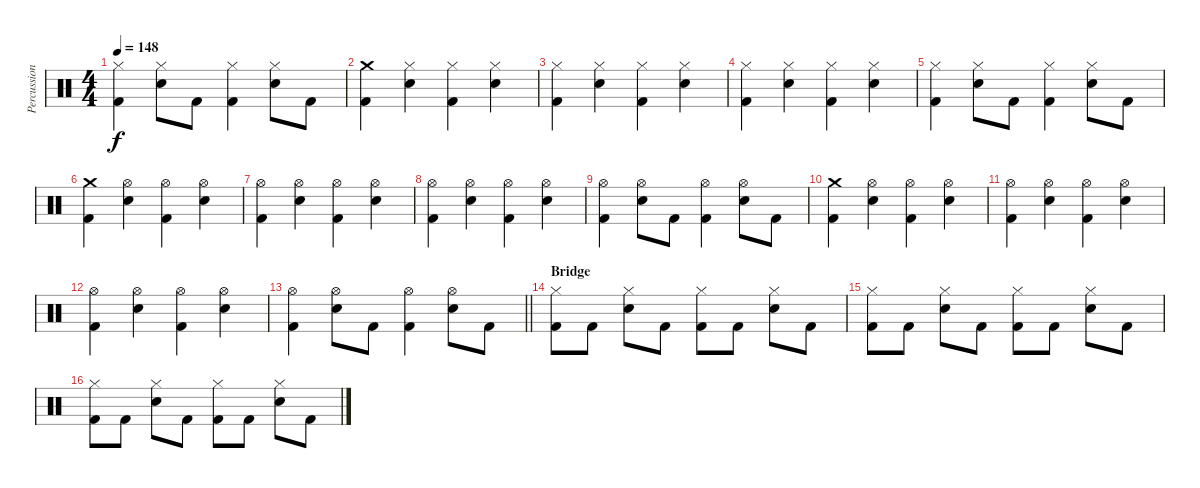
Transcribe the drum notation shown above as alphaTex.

\track ("Percussion - Dennis Wolfe" "Percussion") {instrument percussion}
\staff {score}
\articulation defaults
\ts (4 4)
\tempo 148
\clef neutral
\ks c
("Hi-Hat (closed)" "Kick (hit) 2").4{dy f} ("Hi-Hat (closed)" "Snare (hit) 2").8 "Kick (hit) 2".8 ("Hi-Hat (closed)" "Kick (hit) 2").4 ("Hi-Hat (closed)" "Snare (hit) 2").8 "Kick (hit) 2".8 |
("Crash medium (hit)" "Kick (hit) 2").4 ("Hi-Hat (closed)" "Snare (hit) 2").4 ("Hi-Hat (closed)" "Kick (hit) 2").4 ("Hi-Hat (closed)" "Snare (hit) 2").4 |
("Hi-Hat (closed)" "Kick (hit) 2").4 ("Hi-Hat (closed)" "Snare (hit) 2").4 ("Hi-Hat (closed)" "Kick (hit) 2").4 ("Hi-Hat (closed)" "Snare (hit) 2").4 |
("Hi-Hat (closed)" "Kick (hit) 2").4 ("Hi-Hat (closed)" "Snare (hit) 2").4 ("Hi-Hat (closed)" "Kick (hit) 2").4 ("Hi-Hat (closed)" "Snare (hit) 2").4 |
("Hi-Hat (closed)" "Kick (hit) 2").4 ("Hi-Hat (closed)" "Snare (hit) 2").8 "Kick (hit) 2".8 ("Hi-Hat (closed)" "Kick (hit) 2").4 ("Hi-Hat (closed)" "Snare (hit) 2").8 "Kick (hit) 2".8 |
("Crash medium (hit)" "Kick (hit) 2").4 ("Hi-Hat (open)" "Snare (hit) 2").4 ("Hi-Hat (open)" "Kick (hit) 2").4 ("Hi-Hat (open)" "Snare (hit) 2").4 |
("Hi-Hat (open)" "Kick (hit) 2").4 ("Hi-Hat (open)" "Snare (hit) 2").4 ("Hi-Hat (open)" "Kick (hit) 2").4 ("Hi-Hat (open)" "Snare (hit) 2").4 |
("Hi-Hat (open)" "Kick (hit) 2").4 ("Hi-Hat (open)" "Snare (hit) 2").4 ("Hi-Hat (open)" "Kick (hit) 2").4 ("Hi-Hat (open)" "Snare (hit) 2").4 |
("Hi-Hat (open)" "Kick (hit) 2").4 ("Hi-Hat (open)" "Snare (hit) 2").8 "Kick (hit) 2".8 ("Hi-Hat (open)" "Kick (hit) 2").4 ("Hi-Hat (open)" "Snare (hit) 2").8 "Kick (hit) 2".8 |
("Crash medium (hit)" "Kick (hit) 2").4 ("Hi-Hat (open)" "Snare (hit) 2").4 ("Hi-Hat (open)" "Kick (hit) 2").4 ("Hi-Hat (open)" "Snare (hit) 2").4 |
("Hi-Hat (open)" "Kick (hit) 2").4 ("Hi-Hat (open)" "Snare (hit) 2").4 ("Hi-Hat (open)" "Kick (hit) 2").4 ("Hi-Hat (open)" "Snare (hit) 2").4 |
("Hi-Hat (open)" "Kick (hit) 2").4 ("Hi-Hat (open)" "Snare (hit) 2").4 ("Hi-Hat (open)" "Kick (hit) 2").4 ("Hi-Hat (open)" "Snare (hit) 2").4 |
\barLineRight lightlight
("Hi-Hat (open)" "Kick (hit) 2").4 ("Hi-Hat (open)" "Snare (hit) 2").8 "Kick (hit) 2".8 ("Hi-Hat (open)" "Kick (hit) 2").4 ("Hi-Hat (open)" "Snare (hit) 2").8 "Kick (hit) 2".8 |
\section ("" "Bridge")
("Hi-Hat (closed)" "Kick (hit) 2").8 "Kick (hit) 2".8 ("Hi-Hat (closed)" "Snare (hit) 2").8 "Kick (hit) 2".8 ("Hi-Hat (closed)" "Kick (hit) 2").8 "Kick (hit) 2".8 ("Hi-Hat (closed)" "Snare (hit) 2").8 "Kick (hit) 2".8 |
("Hi-Hat (closed)" "Kick (hit) 2").8 "Kick (hit) 2".8 ("Hi-Hat (closed)" "Snare (hit) 2").8 "Kick (hit) 2".8 ("Hi-Hat (closed)" "Kick (hit) 2").8 "Kick (hit) 2".8 ("Hi-Hat (closed)" "Snare (hit) 2").8 "Kick (hit) 2".8 |
("Hi-Hat (closed)" "Kick (hit) 2").8 "Kick (hit) 2".8 ("Hi-Hat (closed)" "Snare (hit) 2").8 "Kick (hit) 2".8 ("Hi-Hat (closed)" "Kick (hit) 2").8 "Kick (hit) 2".8 ("Hi-Hat (closed)" "Snare (hit) 2").8 "Kick (hit) 2".8
